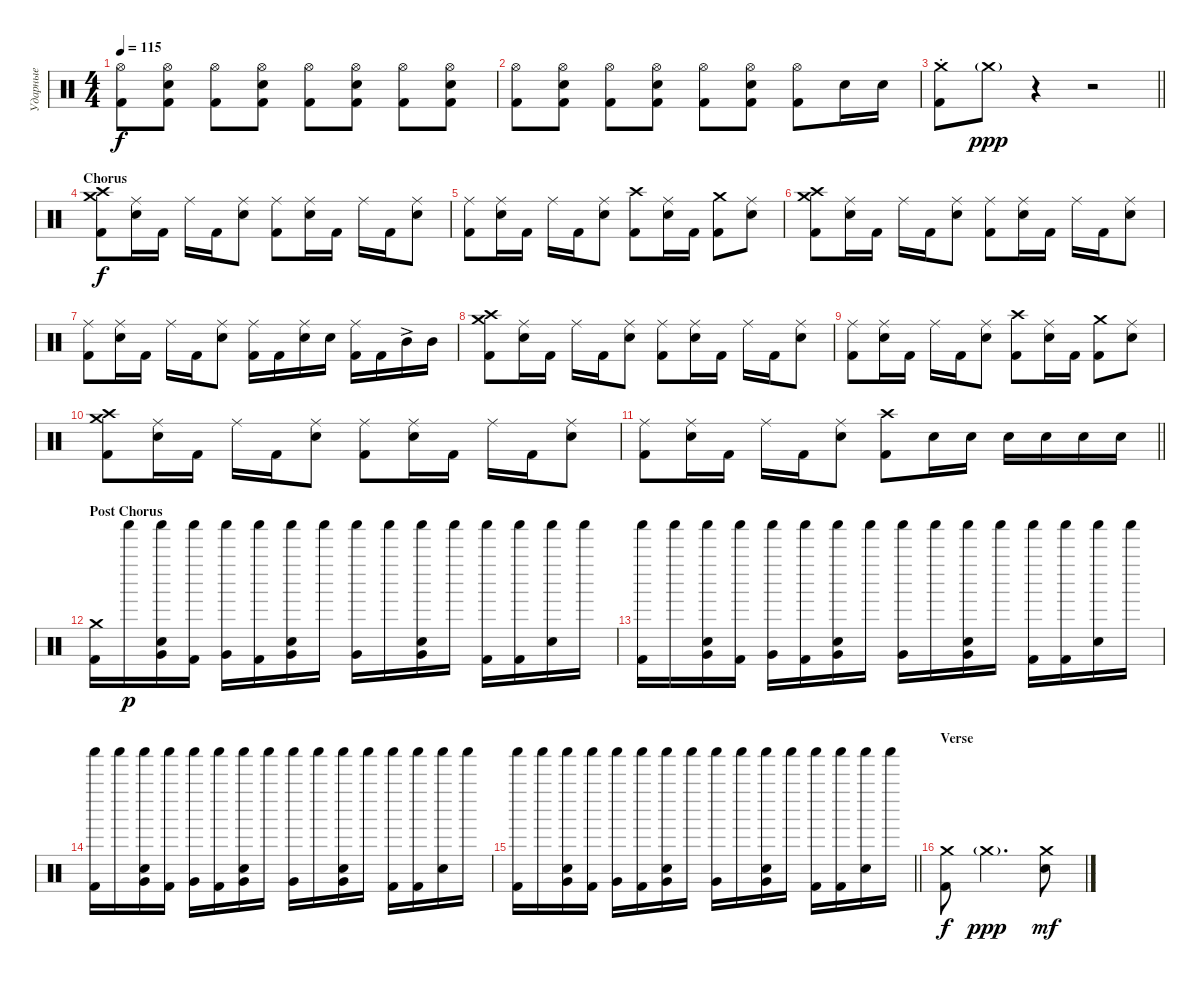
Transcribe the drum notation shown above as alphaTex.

\track ("Ударные" "Ударные") {instrument percussion}
\staff {score}
\articulation defaults
\ts (4 4)
\tempo 115
\clef neutral
\ks c
("Hi-Hat (open)" "Kick (hit) 2").8{dy f} ("Hi-Hat (open)" "Snare (hit) 2" "Kick (hit) 2").8 ("Hi-Hat (open)" "Kick (hit) 2").8 ("Hi-Hat (open)" "Snare (hit) 2" "Kick (hit) 2").8 ("Hi-Hat (open)" "Kick (hit) 2").8 ("Hi-Hat (open)" "Snare (hit) 2" "Kick (hit) 2").8 ("Hi-Hat (open)" "Kick (hit) 2").8 ("Hi-Hat (open)" "Snare (hit) 2" "Kick (hit) 2").8 |
("Hi-Hat (open)" "Kick (hit) 2").8 ("Hi-Hat (open)" "Snare (hit) 2" "Kick (hit) 2").8 ("Hi-Hat (open)" "Kick (hit) 2").8 ("Hi-Hat (open)" "Snare (hit) 2" "Kick (hit) 2").8 ("Hi-Hat (open)" "Kick (hit) 2").8 ("Hi-Hat (open)" "Snare (hit) 2" "Kick (hit) 2").8 ("Hi-Hat (open)" "Kick (hit) 2").8 "Snare (hit) 2".16 "Snare (hit) 2".16 |
\barLineRight lightlight
("Crash medium (hit)"{st} "Kick (hit) 2").8 "Crash medium (hit)"{g}.8{dy ppp} r.4 r.2 |
\section ("" "Chorus")
("Crash medium (hit)" "Crash high (hit)" "Kick (hit) 2").8{dy f} ("Ride (middle)" "Snare (hit) 2").16 "Kick (hit) 2".16 "Ride (middle)".16 "Kick (hit) 2".16 ("Ride (middle)" "Snare (hit) 2").8 ("Ride (middle)" "Kick (hit) 2").8 ("Ride (middle)" "Snare (hit) 2").16 "Kick (hit) 2".16 "Ride (middle)".16 "Kick (hit) 2".16 ("Ride (middle)" "Snare (hit) 2").8 |
("Ride (middle)" "Kick (hit) 2").8 ("Ride (middle)" "Snare (hit) 2").16 "Kick (hit) 2".16 "Ride (middle)".16 "Kick (hit) 2".16 ("Ride (middle)" "Snare (hit) 2").8 ("Crash high (hit)" "Kick (hit) 2").8 ("Ride (middle)" "Snare (hit) 2").16 "Kick (hit) 2".16 ("Crash medium (hit)" "Kick (hit) 2").8 ("Ride (middle)" "Snare (hit) 2").8 |
("Crash medium (hit)" "Crash high (hit)" "Kick (hit) 2").8 ("Ride (middle)" "Snare (hit) 2").16 "Kick (hit) 2".16 "Ride (middle)".16 "Kick (hit) 2".16 ("Ride (middle)" "Snare (hit) 2").8 ("Ride (middle)" "Kick (hit) 2").8 ("Ride (middle)" "Snare (hit) 2").16 "Kick (hit) 2".16 "Ride (middle)".16 "Kick (hit) 2".16 ("Ride (middle)" "Snare (hit) 2").8 |
("Ride (middle)" "Kick (hit) 2").8 ("Ride (middle)" "Snare (hit) 2").16 "Kick (hit) 2".16 "Ride (middle)".16 "Kick (hit) 2".16 ("Ride (middle)" "Snare (hit) 2").8 ("Ride (middle)" "Kick (hit) 2").16 "Kick (hit) 2".16 ("Ride (middle)" "Snare (hit) 2").16 "Snare (hit) 2".16 ("Ride (middle)" "Kick (hit) 2").16 "Kick (hit) 2".16 "Mid Tom (hit)"{ac}.16 "Mid Tom (hit)".16 |
("Crash medium (hit)" "Crash high (hit)" "Kick (hit) 2").8 ("Ride (middle)" "Snare (hit) 2").16 "Kick (hit) 2".16 "Ride (middle)".16 "Kick (hit) 2".16 ("Ride (middle)" "Snare (hit) 2").8 ("Ride (middle)" "Kick (hit) 2").8 ("Ride (middle)" "Snare (hit) 2").16 "Kick (hit) 2".16 "Ride (middle)".16 "Kick (hit) 2".16 ("Ride (middle)" "Snare (hit) 2").8 |
("Ride (middle)" "Kick (hit) 2").8 ("Ride (middle)" "Snare (hit) 2").16 "Kick (hit) 2".16 "Ride (middle)".16 "Kick (hit) 2".16 ("Ride (middle)" "Snare (hit) 2").8 ("Crash high (hit)" "Kick (hit) 2").8 ("Ride (middle)" "Snare (hit) 2").16 "Kick (hit) 2".16 ("Crash medium (hit)" "Kick (hit) 2").8 ("Ride (middle)" "Snare (hit) 2").8 |
("Crash medium (hit)" "Crash high (hit)" "Kick (hit) 2").8 ("Ride (middle)" "Snare (hit) 2").16 "Kick (hit) 2".16 "Ride (middle)".16 "Kick (hit) 2".16 ("Ride (middle)" "Snare (hit) 2").8 ("Ride (middle)" "Kick (hit) 2").8 ("Ride (middle)" "Snare (hit) 2").16 "Kick (hit) 2".16 "Ride (middle)".16 "Kick (hit) 2".16 ("Ride (middle)" "Snare (hit) 2").8 |
\barLineRight lightlight
("Ride (middle)" "Kick (hit) 2").8 ("Ride (middle)" "Snare (hit) 2").16 "Kick (hit) 2".16 "Ride (middle)".16 "Kick (hit) 2".16 ("Ride (middle)" "Snare (hit) 2").8 ("Crash high (hit)" "Kick (hit) 2").8 "Snare (hit) 2".16 "Snare (hit) 2".16 "Snare (hit) 2".16 "Snare (hit) 2".16 "Snare (hit) 2".16 "Snare (hit) 2".16 |
\section ("" "Post Chorus")
("Crash medium (hit)" "Kick (hit) 2").16 "Shaker (hit)".16{dy p} ("Shaker (hit)" "Snare (hit) 2" "Very Low Tom (hit)").16 ("Shaker (hit)" "Kick (hit) 2").16 ("Shaker (hit)" "Very Low Tom (hit)").16 ("Shaker (hit)" "Kick (hit) 2").16 ("Shaker (hit)" "Snare (hit) 2" "Very Low Tom (hit)").16 "Shaker (hit)".16 ("Shaker (hit)" "Very Low Tom (hit)").16 "Shaker (hit)".16 ("Shaker (hit)" "Snare (hit) 2" "Very Low Tom (hit)").16 "Shaker (hit)".16 ("Shaker (hit)" "Kick (hit) 2").16 ("Shaker (hit)" "Kick (hit) 2").16 ("Shaker (hit)" "Snare (hit) 2").16 "Shaker (hit)".16 |
("Shaker (hit)" "Kick (hit) 2").16 "Shaker (hit)".16 ("Shaker (hit)" "Snare (hit) 2" "Very Low Tom (hit)").16 ("Shaker (hit)" "Kick (hit) 2").16 ("Shaker (hit)" "Very Low Tom (hit)").16 ("Shaker (hit)" "Kick (hit) 2").16 ("Shaker (hit)" "Snare (hit) 2" "Very Low Tom (hit)").16 "Shaker (hit)".16 ("Shaker (hit)" "Very Low Tom (hit)").16 "Shaker (hit)".16 ("Shaker (hit)" "Snare (hit) 2" "Very Low Tom (hit)").16 "Shaker (hit)".16 ("Shaker (hit)" "Kick (hit) 2").16 ("Shaker (hit)" "Kick (hit) 2").16 ("Shaker (hit)" "Snare (hit) 2").16 "Shaker (hit)".16 |
("Shaker (hit)" "Kick (hit) 2").16 "Shaker (hit)".16 ("Shaker (hit)" "Snare (hit) 2" "Very Low Tom (hit)").16 ("Shaker (hit)" "Kick (hit) 2").16 ("Shaker (hit)" "Very Low Tom (hit)").16 ("Shaker (hit)" "Kick (hit) 2").16 ("Shaker (hit)" "Snare (hit) 2" "Very Low Tom (hit)").16 "Shaker (hit)".16 ("Shaker (hit)" "Very Low Tom (hit)").16 "Shaker (hit)".16 ("Shaker (hit)" "Snare (hit) 2" "Very Low Tom (hit)").16 "Shaker (hit)".16 ("Shaker (hit)" "Kick (hit) 2").16 ("Shaker (hit)" "Kick (hit) 2").16 ("Shaker (hit)" "Snare (hit) 2").16 "Shaker (hit)".16 |
\barLineRight lightlight
("Shaker (hit)" "Kick (hit) 2").16 "Shaker (hit)".16 ("Shaker (hit)" "Snare (hit) 2" "Very Low Tom (hit)").16 ("Shaker (hit)" "Kick (hit) 2").16 ("Shaker (hit)" "Very Low Tom (hit)").16 ("Shaker (hit)" "Kick (hit) 2").16 ("Shaker (hit)" "Snare (hit) 2" "Very Low Tom (hit)").16 "Shaker (hit)".16 ("Shaker (hit)" "Very Low Tom (hit)").16 "Shaker (hit)".16 ("Shaker (hit)" "Snare (hit) 2" "Very Low Tom (hit)").16 "Shaker (hit)".16 ("Shaker (hit)" "Kick (hit) 2").16 ("Shaker (hit)" "Kick (hit) 2").16 ("Shaker (hit)" "Snare (hit) 2").16 "Shaker (hit)".16 |
\section ("" "Verse")
("Crash medium (hit)" "Kick (hit) 2").8{dy f} "Crash medium (hit)"{g}.2{d dy ppp} ("Crash medium (hit)" "Snare (hit) 2").8{dy mf}
